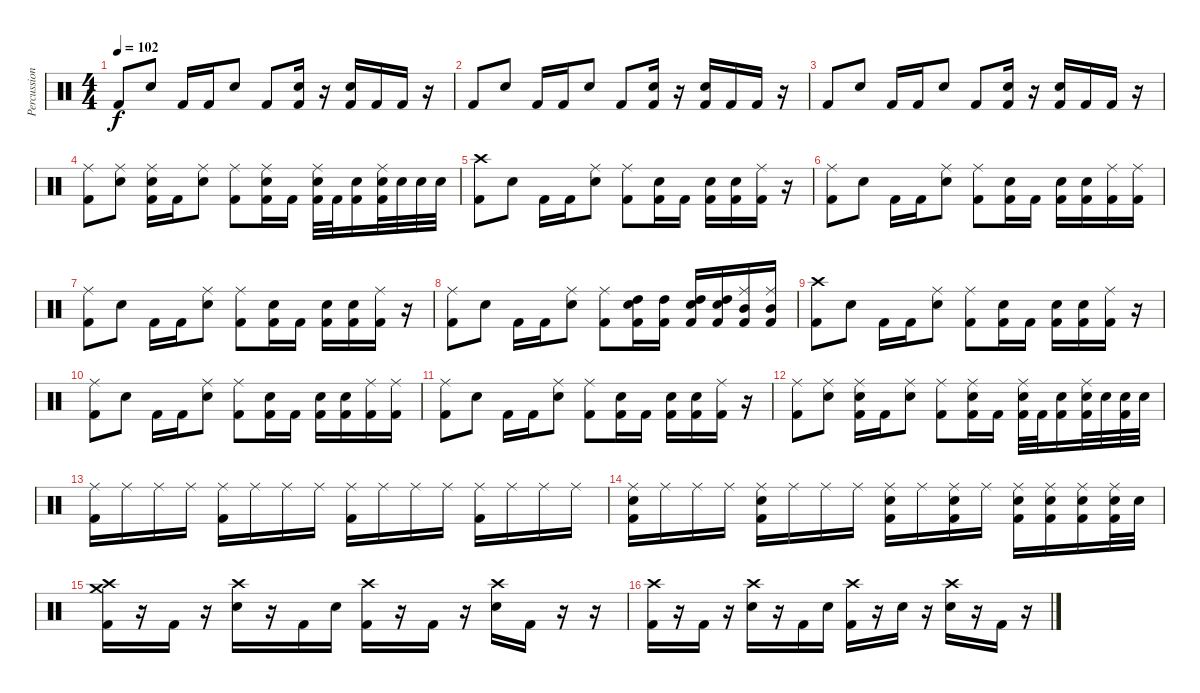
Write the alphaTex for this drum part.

\track ("Percussion" "Percussion") {instrument percussion}
\staff {score}
\articulation defaults
\ts (4 4)
\tempo 102
\clef neutral
\ks c "Kick (hit) 2".8{dy f} "Electric Snare (hit)".8 "Kick (hit) 2".16 "Kick (hit) 2".16 "Electric Snare (hit)".8 "Kick (hit) 2".8
("Electric Snare (hit)" "Kick (hit) 2").16 r.16 ("Electric Snare (hit)" "Kick (hit) 2").16 "Kick (hit) 2".16 "Kick (hit) 2".16 r.16 |
"Kick (hit) 2".8 "Electric Snare (hit)".8 "Kick (hit) 2".16 "Kick (hit) 2".16 "Electric Snare (hit)".8 "Kick (hit) 2".8 ("Electric Snare (hit)" "Kick (hit) 2").16 r.16 ("Electric Snare (hit)" "Kick (hit) 2").16 "Kick (hit) 2".16 "Kick (hit) 2".16 r.16 |
"Kick (hit) 2".8 "Electric Snare (hit)".8 "Kick (hit) 2".16 "Kick (hit) 2".16 "Electric Snare (hit)".8 "Kick (hit) 2".8 ("Electric Snare (hit)" "Kick (hit) 2").16 r.16 ("Electric Snare (hit)" "Kick (hit) 2").16 "Kick (hit) 2".16 "Kick (hit) 2".16 r.16 |
("Ride (middle)" "Kick (hit) 2").8 ("Ride (middle)" "Electric Snare (hit)").8 ("Ride (middle)" "Electric Snare (hit)" "Kick (hit) 2").16 "Kick (hit) 2".16 ("Ride (middle)" "Electric Snare (hit)").8 ("Ride (middle)" "Kick (hit) 2").8 ("Ride (middle)" "Electric Snare (hit)" "Kick (hit) 2").16 "Kick (hit) 2".16 ("Ride (middle)" "Electric Snare (hit)" "Kick (hit) 2").32 "Kick (hit) 2".32 ("Electric Snare (hit)" "Kick (hit) 2").16 ("Ride (middle)" "Electric Snare (hit)" "Kick (hit) 2").32 "Electric Snare (hit)".32 "Electric Snare (hit)".32 "Electric Snare (hit)".32 |
("Crash high (hit)" "Kick (hit) 2").8 "Electric Snare (hit)".8 "Kick (hit) 2".16 "Kick (hit) 2".16 ("Ride (middle)" "Electric Snare (hit)").8 ("Ride (middle)" "Kick (hit) 2").8 ("Electric Snare (hit)" "Kick (hit) 2").16 "Kick (hit) 2".16 ("Electric Snare (hit)" "Kick (hit) 2").16 ("Electric Snare (hit)" "Kick (hit) 2").16 ("Ride (middle)" "Kick (hit) 2").16 r.16 |
("Ride (middle)" "Kick (hit) 2").8 "Electric Snare (hit)".8 "Kick (hit) 2".16 "Kick (hit) 2".16 ("Ride (middle)" "Electric Snare (hit)").8 ("Ride (middle)" "Kick (hit) 2").8 ("Electric Snare (hit)" "Kick (hit) 2").16 "Kick (hit) 2".16 ("Electric Snare (hit)" "Kick (hit) 2").16 ("Electric Snare (hit)" "Kick (hit) 2").16 ("Ride (middle)" "Kick (hit) 2").16 ("Ride (middle)" "Kick (hit) 2").16 |
("Ride (middle)" "Kick (hit) 2").8 "Electric Snare (hit)".8 "Kick (hit) 2".16 "Kick (hit) 2".16 ("Ride (middle)" "Electric Snare (hit)").8 ("Ride (middle)" "Kick (hit) 2").8 ("Electric Snare (hit)" "Kick (hit) 2").16 "Kick (hit) 2".16 ("Electric Snare (hit)" "Kick (hit) 2").16 ("Electric Snare (hit)" "Kick (hit) 2").16 ("Ride (middle)" "Kick (hit) 2").16 r.16 |
("Ride (middle)" "Kick (hit) 2").8 "Electric Snare (hit)".8 "Kick (hit) 2".16 "Kick (hit) 2".16 ("Ride (middle)" "Electric Snare (hit)").8 ("Ride (middle)" "Kick (hit) 2").8 ("High Tom (hit)" "Electric Snare (hit)" "Kick (hit) 2").16 ("High Tom (hit)" "Kick (hit) 2").16 ("High Tom (hit)" "Electric Snare (hit)" "Kick (hit) 2").16 ("High Tom (hit)" "Electric Snare (hit)" "Kick (hit) 2").16 ("Mid Tom (hit)" "Ride (middle)" "Kick (hit) 2").16 ("Mid Tom (hit)" "Ride (middle)" "Kick (hit) 2").16 |
("Crash high (hit)" "Kick (hit) 2").8 "Electric Snare (hit)".8 "Kick (hit) 2".16 "Kick (hit) 2".16 ("Ride (middle)" "Electric Snare (hit)").8 ("Ride (middle)" "Kick (hit) 2").8 ("Electric Snare (hit)" "Kick (hit) 2").16 "Kick (hit) 2".16 ("Electric Snare (hit)" "Kick (hit) 2").16 ("Electric Snare (hit)" "Kick (hit) 2").16 ("Ride (middle)" "Kick (hit) 2").16 r.16 |
("Ride (middle)" "Kick (hit) 2").8 "Electric Snare (hit)".8 "Kick (hit) 2".16 "Kick (hit) 2".16 ("Ride (middle)" "Electric Snare (hit)").8 ("Ride (middle)" "Kick (hit) 2").8 ("Electric Snare (hit)" "Kick (hit) 2").16 "Kick (hit) 2".16 ("Electric Snare (hit)" "Kick (hit) 2").16 ("Electric Snare (hit)" "Kick (hit) 2").16 ("Ride (middle)" "Kick (hit) 2").16 ("Ride (middle)" "Kick (hit) 2").16 |
("Ride (middle)" "Kick (hit) 2").8 "Electric Snare (hit)".8 "Kick (hit) 2".16 "Kick (hit) 2".16 ("Ride (middle)" "Electric Snare (hit)").8 ("Ride (middle)" "Kick (hit) 2").8 ("Electric Snare (hit)" "Kick (hit) 2").16 "Kick (hit) 2".16 ("Electric Snare (hit)" "Kick (hit) 2").16 ("Electric Snare (hit)" "Kick (hit) 2").16 ("Ride (middle)" "Kick (hit) 2").16 r.16 |
("Ride (middle)" "Kick (hit) 2").8 ("Ride (middle)" "Electric Snare (hit)").8 ("Ride (middle)" "Electric Snare (hit)" "Kick (hit) 2").16 "Kick (hit) 2".16 ("Ride (middle)" "Electric Snare (hit)").8 ("Ride (middle)" "Kick (hit) 2").8 ("Ride (middle)" "Electric Snare (hit)" "Kick (hit) 2").16 "Kick (hit) 2".16 ("Ride (middle)" "Electric Snare (hit)" "Kick (hit) 2").32 "Kick (hit) 2".32 ("Electric Snare (hit)" "Kick (hit) 2").16 ("Ride (middle)" "Electric Snare (hit)" "Kick (hit) 2").32 "Electric Snare (hit)".32 ("Electric Snare (hit)" "Kick (hit) 2").32 "Electric Snare (hit)".32 |
("Ride (middle)" "Kick (hit) 2").16 "Ride (middle)".16 "Ride (middle)".16 "Ride (middle)".16 ("Ride (middle)" "Kick (hit) 2").16 "Ride (middle)".16 "Ride (middle)".16 "Ride (middle)".16 ("Ride (middle)" "Kick (hit) 2").16 "Ride (middle)".16 "Ride (middle)".16 "Ride (middle)".16 ("Ride (middle)" "Kick (hit) 2").16 "Ride (middle)".16 "Ride (middle)".16 "Ride (middle)".16 |
("Ride (middle)" "Electric Snare (hit)" "Kick (hit) 2").16 "Ride (middle)".16 "Ride (middle)".16 "Ride (middle)".16 ("Ride (middle)" "Electric Snare (hit)" "Kick (hit) 2").16 "Ride (middle)".16 "Ride (middle)".16 "Ride (middle)".16 ("Ride (middle)" "Electric Snare (hit)" "Kick (hit) 2").16 "Ride (middle)".16 ("Ride (middle)" "Electric Snare (hit)" "Kick (hit) 2").16 "Ride (middle)".16 ("Ride (middle)" "Electric Snare (hit)" "Kick (hit) 2").16 ("Ride (middle)" "Electric Snare (hit)" "Kick (hit) 2").16 ("Ride (middle)" "Electric Snare (hit)" "Kick (hit) 2").16 ("Ride (middle)" "Electric Snare (hit)" "Kick (hit) 2").32 "Electric Snare (hit)".32 |
("Crash medium (hit)" "Crash high (hit)" "Kick (hit) 2").16 r.16 "Kick (hit) 2".16 r.16 ("Crash high (hit)" "Electric Snare (hit)").16 r.16 "Kick (hit) 2".16 "Electric Snare (hit)".16 ("Crash high (hit)" "Kick (hit) 2").16 r.16 "Kick (hit) 2".16 r.16 ("Crash high (hit)" "Electric Snare (hit)").16 "Kick (hit) 2".16 r.16 r.16 |
("Crash high (hit)" "Kick (hit) 2").16 r.16 "Kick (hit) 2".16 r.16 ("Crash high (hit)" "Electric Snare (hit)").16 r.16 "Kick (hit) 2".16 "Electric Snare (hit)".16 ("Crash high (hit)" "Kick (hit) 2").16 r.16 "Electric Snare (hit)".16 r.16 ("Crash high (hit)" "Electric Snare (hit)").16 r.16 "Kick (hit) 2".16 r.16
